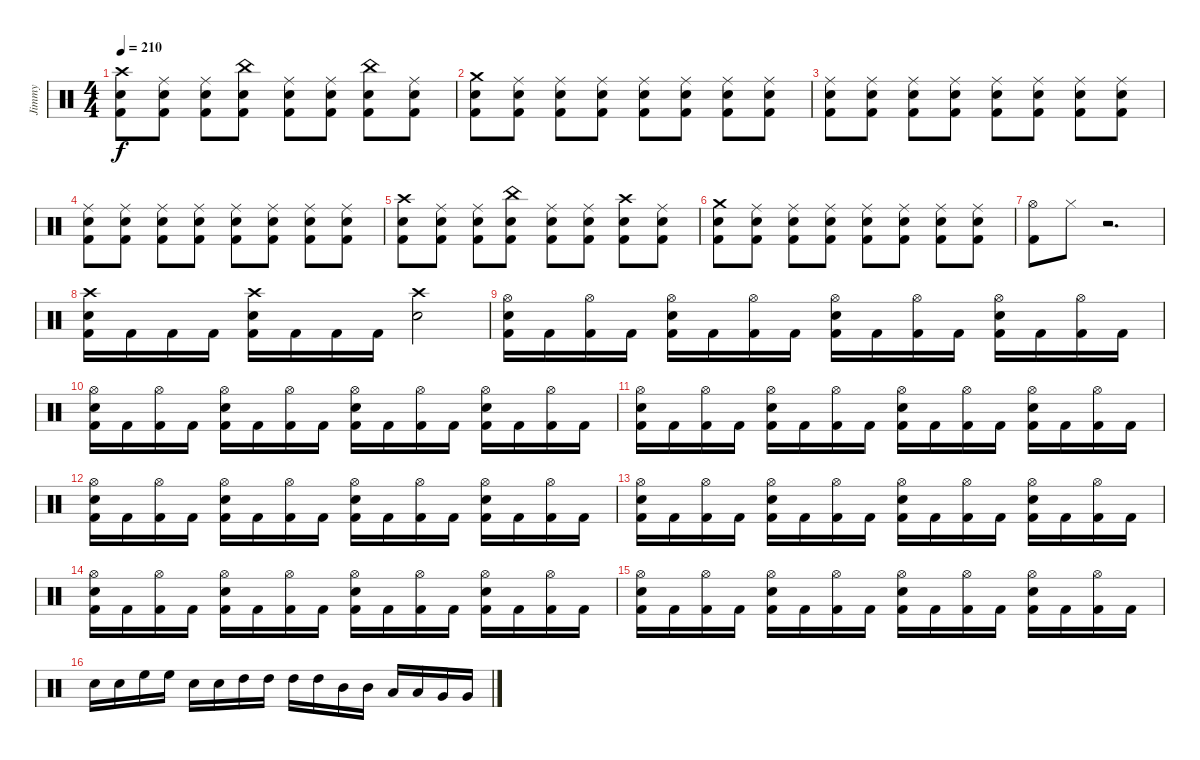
\track ("Jimmy" "Jimmy") {instrument percussion}
\staff {score}
\articulation defaults
\ts (4 4)
\tempo 210
\clef neutral
\ks c
("Crash high (hit)" "Electric Snare (hit)" "Kick (hit) 2").8{dy f} ("Ride (middle)" "Electric Snare (hit)" "Kick (hit) 2").8 ("Ride (middle)" "Electric Snare (hit)" "Kick (hit) 2").8 ("China (hit)" "Electric Snare (hit)" "Kick (hit) 2").8 ("Ride (middle)" "Electric Snare (hit)" "Kick (hit) 2").8 ("Ride (middle)" "Electric Snare (hit)" "Kick (hit) 2").8 ("China (hit)" "Electric Snare (hit)" "Kick (hit) 2").8 ("Ride (middle)" "Electric Snare (hit)" "Kick (hit) 2").8 |
("Crash medium (hit)" "Electric Snare (hit)" "Kick (hit) 2").8 ("Ride (middle)" "Electric Snare (hit)" "Kick (hit) 2").8 ("Ride (middle)" "Electric Snare (hit)" "Kick (hit) 2").8 ("Ride (middle)" "Electric Snare (hit)" "Kick (hit) 2").8 ("Ride (middle)" "Electric Snare (hit)" "Kick (hit) 2").8 ("Ride (middle)" "Electric Snare (hit)" "Kick (hit) 2").8 ("Ride (middle)" "Electric Snare (hit)" "Kick (hit) 2").8 ("Ride (middle)" "Electric Snare (hit)" "Kick (hit) 2").8 |
("Ride (middle)" "Electric Snare (hit)" "Kick (hit) 2").8 ("Ride (middle)" "Electric Snare (hit)" "Kick (hit) 2").8 ("Ride (middle)" "Electric Snare (hit)" "Kick (hit) 2").8 ("Ride (middle)" "Electric Snare (hit)" "Kick (hit) 2").8 ("Ride (middle)" "Electric Snare (hit)" "Kick (hit) 2").8 ("Ride (middle)" "Electric Snare (hit)" "Kick (hit) 2").8 ("Ride (middle)" "Electric Snare (hit)" "Kick (hit) 2").8 ("Ride (middle)" "Electric Snare (hit)" "Kick (hit) 2").8 |
("Ride (middle)" "Electric Snare (hit)" "Kick (hit) 2").8 ("Ride (middle)" "Electric Snare (hit)" "Kick (hit) 2").8 ("Ride (middle)" "Electric Snare (hit)" "Kick (hit) 2").8 ("Ride (middle)" "Electric Snare (hit)" "Kick (hit) 2").8 ("Ride (middle)" "Electric Snare (hit)" "Kick (hit) 2").8 ("Ride (middle)" "Electric Snare (hit)" "Kick (hit) 2").8 ("Ride (middle)" "Electric Snare (hit)" "Kick (hit) 2").8 ("Ride (middle)" "Electric Snare (hit)" "Kick (hit) 2").8 |
("Crash high (hit)" "Electric Snare (hit)" "Kick (hit) 2").8 ("Ride (middle)" "Electric Snare (hit)" "Kick (hit) 2").8 ("Ride (middle)" "Electric Snare (hit)" "Kick (hit) 2").8 ("China (hit)" "Electric Snare (hit)" "Kick (hit) 2").8 ("Ride (middle)" "Electric Snare (hit)" "Kick (hit) 2").8 ("Ride (middle)" "Electric Snare (hit)" "Kick (hit) 2").8 ("Crash high (hit)" "Electric Snare (hit)" "Kick (hit) 2").8 ("Ride (middle)" "Electric Snare (hit)" "Kick (hit) 2").8 |
("Crash medium (hit)" "Electric Snare (hit)" "Kick (hit) 2").8 ("Ride (middle)" "Electric Snare (hit)" "Kick (hit) 2").8 ("Ride (middle)" "Electric Snare (hit)" "Kick (hit) 2").8 ("Ride (middle)" "Electric Snare (hit)" "Kick (hit) 2").8 ("Ride (middle)" "Electric Snare (hit)" "Kick (hit) 2").8 ("Ride (middle)" "Electric Snare (hit)" "Kick (hit) 2").8 ("Ride (middle)" "Electric Snare (hit)" "Kick (hit) 2").8 ("Ride (middle)" "Electric Snare (hit)" "Kick (hit) 2").8 |
("Hi-Hat (open)" "Kick (hit) 2").8 "Hi-Hat (closed)".8 r.2{d} |
("Crash high (hit)" "Electric Snare (hit)" "Kick (hit) 2").16 "Kick (hit) 2".16 "Kick (hit) 2".16 "Kick (hit) 2".16 ("Crash high (hit)" "Electric Snare (hit)" "Kick (hit) 2").16 "Kick (hit) 2".16 "Kick (hit) 2".16 "Kick (hit) 2".16 ("Crash high (hit)" "Electric Snare (hit)").2 |
("Hi-Hat (open)" "Electric Snare (hit)" "Kick (hit) 2").16 "Kick (hit) 2".16 ("Hi-Hat (open)" "Kick (hit) 2").16 "Kick (hit) 2".16 ("Hi-Hat (open)" "Electric Snare (hit)" "Kick (hit) 2").16 "Kick (hit) 2".16 ("Hi-Hat (open)" "Kick (hit) 2").16 "Kick (hit) 2".16 ("Hi-Hat (open)" "Electric Snare (hit)" "Kick (hit) 2").16 "Kick (hit) 2".16 ("Hi-Hat (open)" "Kick (hit) 2").16 "Kick (hit) 2".16 ("Hi-Hat (open)" "Electric Snare (hit)" "Kick (hit) 2").16 "Kick (hit) 2".16 ("Hi-Hat (open)" "Kick (hit) 2").16 "Kick (hit) 2".16 |
("Hi-Hat (open)" "Electric Snare (hit)" "Kick (hit) 2").16 "Kick (hit) 2".16 ("Hi-Hat (open)" "Kick (hit) 2").16 "Kick (hit) 2".16 ("Hi-Hat (open)" "Electric Snare (hit)" "Kick (hit) 2").16 "Kick (hit) 2".16 ("Hi-Hat (open)" "Kick (hit) 2").16 "Kick (hit) 2".16 ("Hi-Hat (open)" "Electric Snare (hit)" "Kick (hit) 2").16 "Kick (hit) 2".16 ("Hi-Hat (open)" "Kick (hit) 2").16 "Kick (hit) 2".16 ("Hi-Hat (open)" "Electric Snare (hit)" "Kick (hit) 2").16 "Kick (hit) 2".16 ("Hi-Hat (open)" "Kick (hit) 2").16 "Kick (hit) 2".16 |
("Hi-Hat (open)" "Electric Snare (hit)" "Kick (hit) 2").16 "Kick (hit) 2".16 ("Hi-Hat (open)" "Kick (hit) 2").16 "Kick (hit) 2".16 ("Hi-Hat (open)" "Electric Snare (hit)" "Kick (hit) 2").16 "Kick (hit) 2".16 ("Hi-Hat (open)" "Kick (hit) 2").16 "Kick (hit) 2".16 ("Hi-Hat (open)" "Electric Snare (hit)" "Kick (hit) 2").16 "Kick (hit) 2".16 ("Hi-Hat (open)" "Kick (hit) 2").16 "Kick (hit) 2".16 ("Hi-Hat (open)" "Electric Snare (hit)" "Kick (hit) 2").16 "Kick (hit) 2".16 ("Hi-Hat (open)" "Kick (hit) 2").16 "Kick (hit) 2".16 |
("Hi-Hat (open)" "Electric Snare (hit)" "Kick (hit) 2").16 "Kick (hit) 2".16 ("Hi-Hat (open)" "Kick (hit) 2").16 "Kick (hit) 2".16 ("Hi-Hat (open)" "Electric Snare (hit)" "Kick (hit) 2").16 "Kick (hit) 2".16 ("Hi-Hat (open)" "Kick (hit) 2").16 "Kick (hit) 2".16 ("Hi-Hat (open)" "Electric Snare (hit)" "Kick (hit) 2").16 "Kick (hit) 2".16 ("Hi-Hat (open)" "Kick (hit) 2").16 "Kick (hit) 2".16 ("Hi-Hat (open)" "Electric Snare (hit)" "Kick (hit) 2").16 "Kick (hit) 2".16 ("Hi-Hat (open)" "Kick (hit) 2").16 "Kick (hit) 2".16 |
("Hi-Hat (open)" "Electric Snare (hit)" "Kick (hit) 2").16 "Kick (hit) 2".16 ("Hi-Hat (open)" "Kick (hit) 2").16 "Kick (hit) 2".16 ("Hi-Hat (open)" "Electric Snare (hit)" "Kick (hit) 2").16 "Kick (hit) 2".16 ("Hi-Hat (open)" "Kick (hit) 2").16 "Kick (hit) 2".16 ("Hi-Hat (open)" "Electric Snare (hit)" "Kick (hit) 2").16 "Kick (hit) 2".16 ("Hi-Hat (open)" "Kick (hit) 2").16 "Kick (hit) 2".16 ("Hi-Hat (open)" "Electric Snare (hit)" "Kick (hit) 2").16 "Kick (hit) 2".16 ("Hi-Hat (open)" "Kick (hit) 2").16 "Kick (hit) 2".16 |
("Hi-Hat (open)" "Electric Snare (hit)" "Kick (hit) 2").16 "Kick (hit) 2".16 ("Hi-Hat (open)" "Kick (hit) 2").16 "Kick (hit) 2".16 ("Hi-Hat (open)" "Electric Snare (hit)" "Kick (hit) 2").16 "Kick (hit) 2".16 ("Hi-Hat (open)" "Kick (hit) 2").16 "Kick (hit) 2".16 ("Hi-Hat (open)" "Electric Snare (hit)" "Kick (hit) 2").16 "Kick (hit) 2".16 ("Hi-Hat (open)" "Kick (hit) 2").16 "Kick (hit) 2".16 ("Hi-Hat (open)" "Electric Snare (hit)" "Kick (hit) 2").16 "Kick (hit) 2".16 ("Hi-Hat (open)" "Kick (hit) 2").16 "Kick (hit) 2".16 |
("Hi-Hat (open)" "Electric Snare (hit)" "Kick (hit) 2").16 "Kick (hit) 2".16 ("Hi-Hat (open)" "Kick (hit) 2").16 "Kick (hit) 2".16 ("Hi-Hat (open)" "Electric Snare (hit)" "Kick (hit) 2").16 "Kick (hit) 2".16 ("Hi-Hat (open)" "Kick (hit) 2").16 "Kick (hit) 2".16 ("Hi-Hat (open)" "Electric Snare (hit)" "Kick (hit) 2").16 "Kick (hit) 2".16 ("Hi-Hat (open)" "Kick (hit) 2").16 "Kick (hit) 2".16 ("Hi-Hat (open)" "Electric Snare (hit)" "Kick (hit) 2").16 "Kick (hit) 2".16 ("Hi-Hat (open)" "Kick (hit) 2").16 "Kick (hit) 2".16 |
"Electric Snare (hit)".16 "Electric Snare (hit)".16 "High Floor Tom (hit)".16 "High Floor Tom (hit)".16 "Electric Snare (hit)".16 "Electric Snare (hit)".16 "High Tom (hit)".16 "High Tom (hit)".16 "High Tom (hit)".16 "High Tom (hit)".16 "Mid Tom (hit)".16 "Mid Tom (hit)".16 "Low Tom (hit)".16 "Low Tom (hit)".16 "Very Low Tom (hit)".16 "Very Low Tom (hit)".16
